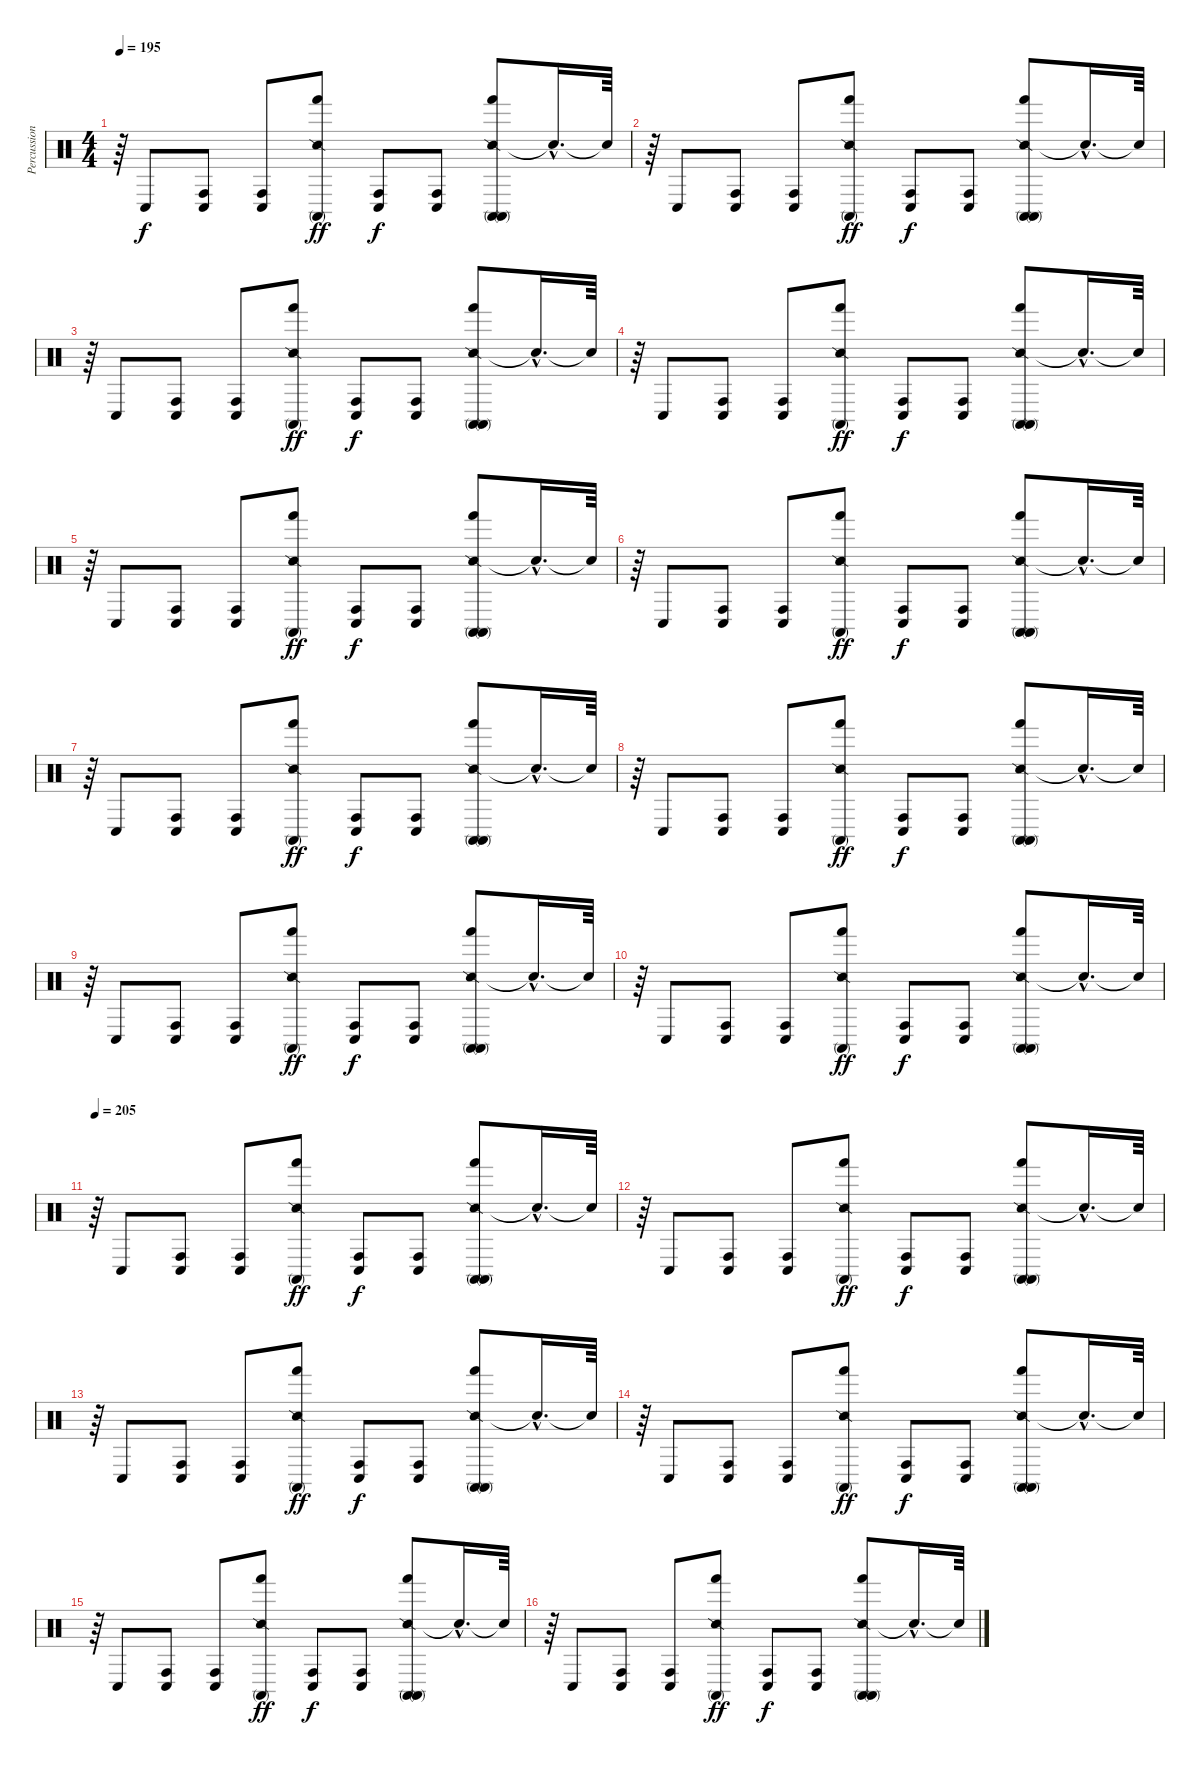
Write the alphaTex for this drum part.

\track ("Percussion" "Percussion") {instrument percussion}
\staff {score}
\articulation defaults
\ts (4 4)
\tempo 195
\clef neutral
\ks c
r.64{dy f} "Conga low (hit)".8 ("Conga high (hit)" "Conga low (hit)").8 ("Conga high (hit)" "Conga low (hit)").8 ("Snare (side stick) 2" "Hand (hit)" "Conga high (mute)").8{dy ff} ("Conga high (hit)" "Conga low (hit)").8{dy f} ("Conga high (hit)" "Conga low (hit)").8 ("Snare (side stick) 2" "Hand (hit)" "Conga high (mute)" "Conga high (mute)").8 "Snare (hit)"{hac t}.16{d} "Snare (hit)"{t}.64 |
r.64 "Conga low (hit)".8 ("Conga high (hit)" "Conga low (hit)").8 ("Conga high (hit)" "Conga low (hit)").8 ("Snare (side stick) 2" "Hand (hit)" "Conga high (mute)").8{dy ff} ("Conga high (hit)" "Conga low (hit)").8{dy f} ("Conga high (hit)" "Conga low (hit)").8 ("Snare (side stick) 2" "Hand (hit)" "Conga high (mute)" "Conga high (mute)").8 "Snare (hit)"{hac t}.16{d} "Snare (hit)"{t}.64 |
r.64 "Conga low (hit)".8 ("Conga high (hit)" "Conga low (hit)").8 ("Conga high (hit)" "Conga low (hit)").8 ("Snare (side stick) 2" "Hand (hit)" "Conga high (mute)").8{dy ff} ("Conga high (hit)" "Conga low (hit)").8{dy f} ("Conga high (hit)" "Conga low (hit)").8 ("Snare (side stick) 2" "Hand (hit)" "Conga high (mute)" "Conga high (mute)").8 "Snare (hit)"{hac t}.16{d} "Snare (hit)"{t}.64 |
r.64 "Conga low (hit)".8 ("Conga high (hit)" "Conga low (hit)").8 ("Conga high (hit)" "Conga low (hit)").8 ("Snare (side stick) 2" "Hand (hit)" "Conga high (mute)").8{dy ff} ("Conga high (hit)" "Conga low (hit)").8{dy f} ("Conga high (hit)" "Conga low (hit)").8 ("Snare (side stick) 2" "Hand (hit)" "Conga high (mute)" "Conga high (mute)").8 "Snare (hit)"{hac t}.16{d} "Snare (hit)"{t}.64 |
r.64 "Conga low (hit)".8 ("Conga high (hit)" "Conga low (hit)").8 ("Conga high (hit)" "Conga low (hit)").8 ("Snare (side stick) 2" "Hand (hit)" "Conga high (mute)").8{dy ff} ("Conga high (hit)" "Conga low (hit)").8{dy f} ("Conga high (hit)" "Conga low (hit)").8 ("Snare (side stick) 2" "Hand (hit)" "Conga high (mute)" "Conga high (mute)").8 "Snare (hit)"{hac t}.16{d} "Snare (hit)"{t}.64 |
r.64 "Conga low (hit)".8 ("Conga high (hit)" "Conga low (hit)").8 ("Conga high (hit)" "Conga low (hit)").8 ("Snare (side stick) 2" "Hand (hit)" "Conga high (mute)").8{dy ff} ("Conga high (hit)" "Conga low (hit)").8{dy f} ("Conga high (hit)" "Conga low (hit)").8 ("Snare (side stick) 2" "Hand (hit)" "Conga high (mute)" "Conga high (mute)").8 "Snare (hit)"{hac t}.16{d} "Snare (hit)"{t}.64 |
r.64 "Conga low (hit)".8 ("Conga high (hit)" "Conga low (hit)").8 ("Conga high (hit)" "Conga low (hit)").8 ("Snare (side stick) 2" "Hand (hit)" "Conga high (mute)").8{dy ff} ("Conga high (hit)" "Conga low (hit)").8{dy f} ("Conga high (hit)" "Conga low (hit)").8 ("Snare (side stick) 2" "Hand (hit)" "Conga high (mute)" "Conga high (mute)").8 "Snare (hit)"{hac t}.16{d} "Snare (hit)"{t}.64 |
r.64 "Conga low (hit)".8 ("Conga high (hit)" "Conga low (hit)").8 ("Conga high (hit)" "Conga low (hit)").8 ("Snare (side stick) 2" "Hand (hit)" "Conga high (mute)").8{dy ff} ("Conga high (hit)" "Conga low (hit)").8{dy f} ("Conga high (hit)" "Conga low (hit)").8 ("Snare (side stick) 2" "Hand (hit)" "Conga high (mute)" "Conga high (mute)").8 "Snare (hit)"{hac t}.16{d} "Snare (hit)"{t}.64 |
r.64 "Conga low (hit)".8 ("Conga high (hit)" "Conga low (hit)").8 ("Conga high (hit)" "Conga low (hit)").8 ("Snare (side stick) 2" "Hand (hit)" "Conga high (mute)").8{dy ff} ("Conga high (hit)" "Conga low (hit)").8{dy f} ("Conga high (hit)" "Conga low (hit)").8 ("Snare (side stick) 2" "Hand (hit)" "Conga high (mute)" "Conga high (mute)").8 "Snare (hit)"{hac t}.16{d} "Snare (hit)"{t}.64 |
r.64 "Conga low (hit)".8 ("Conga high (hit)" "Conga low (hit)").8 ("Conga high (hit)" "Conga low (hit)").8 ("Snare (side stick) 2" "Hand (hit)" "Conga high (mute)").8{dy ff} ("Conga high (hit)" "Conga low (hit)").8{dy f} ("Conga high (hit)" "Conga low (hit)").8 ("Snare (side stick) 2" "Hand (hit)" "Conga high (mute)" "Conga high (mute)").8 "Snare (hit)"{hac t}.16{d} "Snare (hit)"{t}.64 |
\tempo 205
r.64 "Conga low (hit)".8 ("Conga high (hit)" "Conga low (hit)").8 ("Conga high (hit)" "Conga low (hit)").8 ("Snare (side stick) 2" "Hand (hit)" "Conga high (mute)").8{dy ff} ("Conga high (hit)" "Conga low (hit)").8{dy f} ("Conga high (hit)" "Conga low (hit)").8 ("Snare (side stick) 2" "Hand (hit)" "Conga high (mute)" "Conga high (mute)").8 "Snare (hit)"{hac t}.16{d} "Snare (hit)"{t}.64 |
r.64 "Conga low (hit)".8 ("Conga high (hit)" "Conga low (hit)").8 ("Conga high (hit)" "Conga low (hit)").8 ("Snare (side stick) 2" "Hand (hit)" "Conga high (mute)").8{dy ff} ("Conga high (hit)" "Conga low (hit)").8{dy f} ("Conga high (hit)" "Conga low (hit)").8 ("Snare (side stick) 2" "Hand (hit)" "Conga high (mute)" "Conga high (mute)").8 "Snare (hit)"{hac t}.16{d} "Snare (hit)"{t}.64 |
r.64 "Conga low (hit)".8 ("Conga high (hit)" "Conga low (hit)").8 ("Conga high (hit)" "Conga low (hit)").8 ("Snare (side stick) 2" "Hand (hit)" "Conga high (mute)").8{dy ff} ("Conga high (hit)" "Conga low (hit)").8{dy f} ("Conga high (hit)" "Conga low (hit)").8 ("Snare (side stick) 2" "Hand (hit)" "Conga high (mute)" "Conga high (mute)").8 "Snare (hit)"{hac t}.16{d} "Snare (hit)"{t}.64 |
r.64 "Conga low (hit)".8 ("Conga high (hit)" "Conga low (hit)").8 ("Conga high (hit)" "Conga low (hit)").8 ("Snare (side stick) 2" "Hand (hit)" "Conga high (mute)").8{dy ff} ("Conga high (hit)" "Conga low (hit)").8{dy f} ("Conga high (hit)" "Conga low (hit)").8 ("Snare (side stick) 2" "Hand (hit)" "Conga high (mute)" "Conga high (mute)").8 "Snare (hit)"{hac t}.16{d} "Snare (hit)"{t}.64 |
r.64 "Conga low (hit)".8 ("Conga high (hit)" "Conga low (hit)").8 ("Conga high (hit)" "Conga low (hit)").8 ("Snare (side stick) 2" "Hand (hit)" "Conga high (mute)").8{dy ff} ("Conga high (hit)" "Conga low (hit)").8{dy f} ("Conga high (hit)" "Conga low (hit)").8 ("Snare (side stick) 2" "Hand (hit)" "Conga high (mute)" "Conga high (mute)").8 "Snare (hit)"{hac t}.16{d} "Snare (hit)"{t}.64 |
r.64 "Conga low (hit)".8 ("Conga high (hit)" "Conga low (hit)").8 ("Conga high (hit)" "Conga low (hit)").8 ("Snare (side stick) 2" "Hand (hit)" "Conga high (mute)").8{dy ff} ("Conga high (hit)" "Conga low (hit)").8{dy f} ("Conga high (hit)" "Conga low (hit)").8 ("Snare (side stick) 2" "Hand (hit)" "Conga high (mute)" "Conga high (mute)").8 "Snare (hit)"{hac t}.16{d} "Snare (hit)"{t}.64
